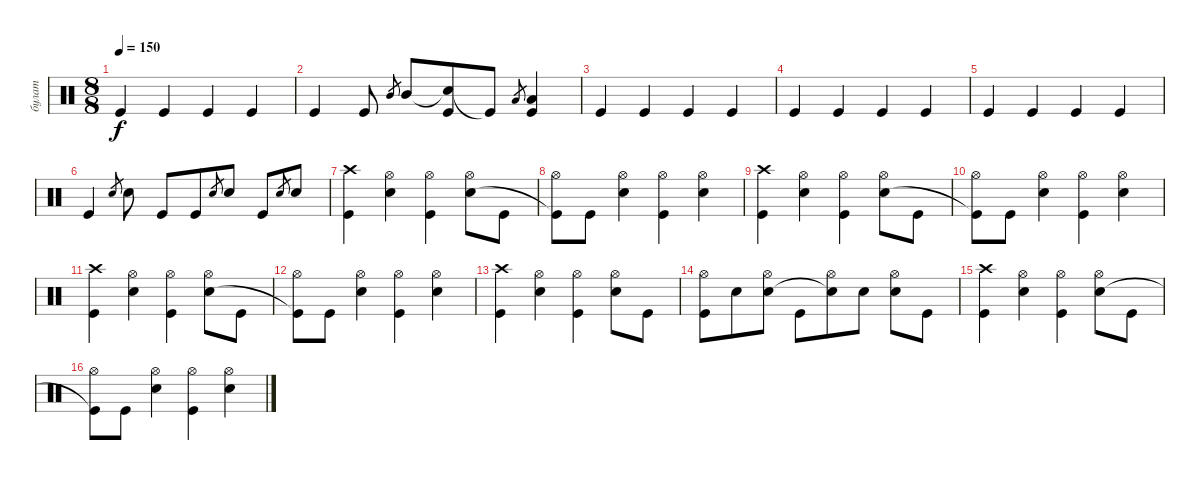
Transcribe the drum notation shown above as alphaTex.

\track ("булат" "булат") {instrument percussion}
\staff {score}
\articulation defaults
\ts (8 8)
\tempo 150
\clef neutral
\ks c "Kick (hit)".4{dy f} "Kick (hit)".4 "Kick (hit)".4 "Kick (hit)".4
|
"Kick (hit)".4 "Kick (hit)".8 "Mid Tom (hit)".8{gr} "Mid Tom (hit)".8 ("Snare (hit)"{t} "Kick (hit)").8 "Kick (hit)"{t}.8 "Low Tom (hit)".8{gr} ("Low Tom (hit)" "Kick (hit)").4 |
"Kick (hit)".4 "Kick (hit)".4 "Kick (hit)".4 "Kick (hit)".4 |
"Kick (hit)".4 "Kick (hit)".4 "Kick (hit)".4 "Kick (hit)".4 |
"Kick (hit)".4 "Kick (hit)".4 "Kick (hit)".4 "Kick (hit)".4 |
"Kick (hit)".4 "Snare (hit) 2".8{gr} "Snare (hit) 2".8 "Kick (hit)".8 "Kick (hit)".8 "Snare (hit) 2".8{gr} "Snare (hit) 2".8 "Kick (hit)".8 "Snare (hit) 2".8{gr} "Snare (hit) 2".8 |
("Crash high (hit)" "Kick (hit)").4 ("Hi-Hat (open)" "Snare (hit) 2").4 ("Hi-Hat (open)" "Kick (hit)").4 ("Hi-Hat (open)" "Snare (hit) 2").8 "Kick (hit)".8 |
("Hi-Hat (open)" "Kick (hit)"{t}).8 "Kick (hit)".8 ("Hi-Hat (open)" "Snare (hit) 2").4 ("Hi-Hat (open)" "Kick (hit)").4 ("Hi-Hat (open)" "Snare (hit) 2").4 |
("Crash high (hit)" "Kick (hit)").4 ("Hi-Hat (open)" "Snare (hit) 2").4 ("Hi-Hat (open)" "Kick (hit)").4 ("Hi-Hat (open)" "Snare (hit) 2").8 "Kick (hit)".8 |
("Hi-Hat (open)" "Kick (hit)"{t}).8 "Kick (hit)".8 ("Hi-Hat (open)" "Snare (hit) 2").4 ("Hi-Hat (open)" "Kick (hit)").4 ("Hi-Hat (open)" "Snare (hit) 2").4 |
("Crash high (hit)" "Kick (hit)").4 ("Hi-Hat (open)" "Snare (hit) 2").4 ("Hi-Hat (open)" "Kick (hit)").4 ("Hi-Hat (open)" "Snare (hit) 2").8 "Kick (hit)".8 |
("Hi-Hat (open)" "Kick (hit)"{t}).8 "Kick (hit)".8 ("Hi-Hat (open)" "Snare (hit) 2").4 ("Hi-Hat (open)" "Kick (hit)").4 ("Hi-Hat (open)" "Snare (hit) 2").4 |
("Crash high (hit)" "Kick (hit)").4 ("Hi-Hat (open)" "Snare (hit) 2").4 ("Hi-Hat (open)" "Kick (hit)").4 ("Hi-Hat (open)" "Snare (hit) 2").8 "Kick (hit)".8 |
("Hi-Hat (open)" "Kick (hit)").8 "Snare (hit) 2".8 ("Hi-Hat (open)" "Snare (hit) 2").8 "Kick (hit)".8 ("Hi-Hat (open)" "Snare (hit)"{t}).8 "Snare (hit) 2".8 ("Hi-Hat (open)" "Snare (hit) 2").8 "Kick (hit)".8 |
("Crash high (hit)" "Kick (hit)").4 ("Hi-Hat (open)" "Snare (hit) 2").4 ("Hi-Hat (open)" "Kick (hit)").4 ("Hi-Hat (open)" "Snare (hit) 2").8 "Kick (hit)".8 |
("Hi-Hat (open)" "Kick (hit)"{t}).8 "Kick (hit)".8 ("Hi-Hat (open)" "Snare (hit) 2").4 ("Hi-Hat (open)" "Kick (hit)").4 ("Hi-Hat (open)" "Snare (hit) 2").4
